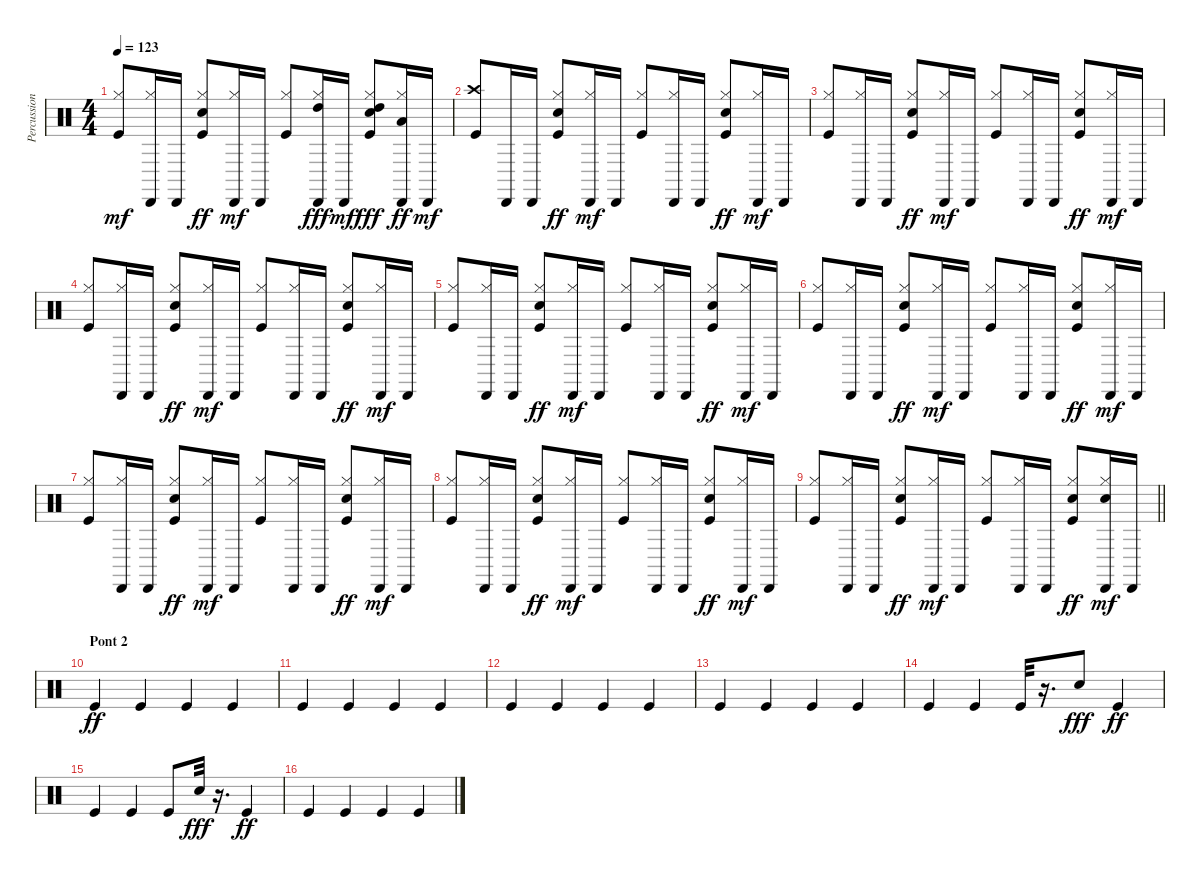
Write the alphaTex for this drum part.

\track ("Percussions" "Percussion") {instrument percussion}
\staff {score}
\articulation defaults
\ts (4 4)
\tempo 123
\clef neutral
\ks c
("Kick (hit)" "Hi-Hat (closed)").8{dy mf} ("Hi-Hat (closed)" "Cabasa (hit)").16 "Cabasa (hit)".16 ("Kick (hit)" "Snare (hit) 2" "Hi-Hat (closed)").8{dy ff} ("Hi-Hat (closed)" "Cabasa (hit)").16{dy mf} "Cabasa (hit)".16 ("Kick (hit)" "Hi-Hat (closed)").8 ("Hi-Hat (closed)" "Cabasa (hit)" "High Tom (hit)").16{dy fff} "Cabasa (hit)".16{dy mf} ("Kick (hit)" "Snare (hit) 2" "Hi-Hat (closed)" "High Tom (hit)").8{dy fff} ("Hi-Hat (closed)" "Cabasa (hit)" "Low Tom (hit)").16{dy ff} "Cabasa (hit)".16{dy mf} |
("Kick (hit)" "Crash high (hit)").8 "Cabasa (hit)".16 "Cabasa (hit)".16 ("Kick (hit)" "Snare (hit) 2" "Hi-Hat (closed)").8{dy ff} ("Hi-Hat (closed)" "Cabasa (hit)").16{dy mf} "Cabasa (hit)".16 ("Kick (hit)" "Hi-Hat (closed)").8 ("Hi-Hat (closed)" "Cabasa (hit)").16 "Cabasa (hit)".16 ("Kick (hit)" "Snare (hit) 2" "Hi-Hat (closed)").8{dy ff} ("Hi-Hat (closed)" "Cabasa (hit)").16{dy mf} "Cabasa (hit)".16 |
("Kick (hit)" "Hi-Hat (closed)").8 ("Hi-Hat (closed)" "Cabasa (hit)").16 "Cabasa (hit)".16 ("Kick (hit)" "Snare (hit) 2" "Hi-Hat (closed)").8{dy ff} ("Hi-Hat (closed)" "Cabasa (hit)").16{dy mf} "Cabasa (hit)".16 ("Kick (hit)" "Hi-Hat (closed)").8 ("Hi-Hat (closed)" "Cabasa (hit)").16 "Cabasa (hit)".16 ("Kick (hit)" "Snare (hit) 2" "Hi-Hat (closed)").8{dy ff} ("Hi-Hat (closed)" "Cabasa (hit)").16{dy mf} "Cabasa (hit)".16 |
("Kick (hit)" "Hi-Hat (closed)").8 ("Hi-Hat (closed)" "Cabasa (hit)").16 "Cabasa (hit)".16 ("Kick (hit)" "Snare (hit) 2" "Hi-Hat (closed)").8{dy ff} ("Hi-Hat (closed)" "Cabasa (hit)").16{dy mf} "Cabasa (hit)".16 ("Kick (hit)" "Hi-Hat (closed)").8 ("Hi-Hat (closed)" "Cabasa (hit)").16 "Cabasa (hit)".16 ("Kick (hit)" "Snare (hit) 2" "Hi-Hat (closed)").8{dy ff} ("Hi-Hat (closed)" "Cabasa (hit)").16{dy mf} "Cabasa (hit)".16 |
("Kick (hit)" "Hi-Hat (closed)").8 ("Hi-Hat (closed)" "Cabasa (hit)").16 "Cabasa (hit)".16 ("Kick (hit)" "Snare (hit) 2" "Hi-Hat (closed)").8{dy ff} ("Hi-Hat (closed)" "Cabasa (hit)").16{dy mf} "Cabasa (hit)".16 ("Kick (hit)" "Hi-Hat (closed)").8 ("Hi-Hat (closed)" "Cabasa (hit)").16 "Cabasa (hit)".16 ("Kick (hit)" "Snare (hit) 2" "Hi-Hat (closed)").8{dy ff} ("Hi-Hat (closed)" "Cabasa (hit)").16{dy mf} "Cabasa (hit)".16 |
("Kick (hit)" "Hi-Hat (closed)").8 ("Hi-Hat (closed)" "Cabasa (hit)").16 "Cabasa (hit)".16 ("Kick (hit)" "Snare (hit) 2" "Hi-Hat (closed)").8{dy ff} ("Hi-Hat (closed)" "Cabasa (hit)").16{dy mf} "Cabasa (hit)".16 ("Kick (hit)" "Hi-Hat (closed)").8 ("Hi-Hat (closed)" "Cabasa (hit)").16 "Cabasa (hit)".16 ("Kick (hit)" "Snare (hit) 2" "Hi-Hat (closed)").8{dy ff} ("Hi-Hat (closed)" "Cabasa (hit)").16{dy mf} "Cabasa (hit)".16 |
("Kick (hit)" "Hi-Hat (closed)").8 ("Hi-Hat (closed)" "Cabasa (hit)").16 "Cabasa (hit)".16 ("Kick (hit)" "Snare (hit) 2" "Hi-Hat (closed)").8{dy ff} ("Hi-Hat (closed)" "Cabasa (hit)").16{dy mf} "Cabasa (hit)".16 ("Kick (hit)" "Hi-Hat (closed)").8 ("Hi-Hat (closed)" "Cabasa (hit)").16 "Cabasa (hit)".16 ("Kick (hit)" "Snare (hit) 2" "Hi-Hat (closed)").8{dy ff} ("Hi-Hat (closed)" "Cabasa (hit)").16{dy mf} "Cabasa (hit)".16 |
("Kick (hit)" "Hi-Hat (closed)").8 ("Hi-Hat (closed)" "Cabasa (hit)").16 "Cabasa (hit)".16 ("Kick (hit)" "Snare (hit) 2" "Hi-Hat (closed)").8{dy ff} ("Hi-Hat (closed)" "Cabasa (hit)").16{dy mf} "Cabasa (hit)".16 ("Kick (hit)" "Hi-Hat (closed)").8 ("Hi-Hat (closed)" "Cabasa (hit)").16 "Cabasa (hit)".16 ("Kick (hit)" "Snare (hit) 2" "Hi-Hat (closed)").8{dy ff} ("Hi-Hat (closed)" "Cabasa (hit)").16{dy mf} "Cabasa (hit)".16 |
\barLineRight lightlight
("Kick (hit)" "Hi-Hat (closed)").8 ("Hi-Hat (closed)" "Cabasa (hit)").16 "Cabasa (hit)".16 ("Kick (hit)" "Snare (hit) 2" "Hi-Hat (closed)").8{dy ff} ("Hi-Hat (closed)" "Cabasa (hit)").16{dy mf} "Cabasa (hit)".16 ("Kick (hit)" "Hi-Hat (closed)").8 ("Hi-Hat (closed)" "Cabasa (hit)").16 "Cabasa (hit)".16 ("Kick (hit)" "Snare (hit) 2" "Hi-Hat (closed)").8{dy ff} ("Hi-Hat (closed)" "Hand Clap (hit)" "Cabasa (hit)").16{dy mf} "Cabasa (hit)".16 |
\section ("" "Pont 2")
"Kick (hit)".4{dy ff} "Kick (hit)".4 "Kick (hit)".4 "Kick (hit)".4 |
"Kick (hit)".4 "Kick (hit)".4 "Kick (hit)".4 "Kick (hit)".4 |
"Kick (hit)".4 "Kick (hit)".4 "Kick (hit)".4 "Kick (hit)".4 |
"Kick (hit)".4 "Kick (hit)".4 "Kick (hit)".4 "Kick (hit)".4 |
"Kick (hit)".4 "Kick (hit)".4 "Kick (hit)".32 r.16{d} "Hand Clap (hit)".8{dy fff} "Kick (hit)".4{dy ff} |
"Kick (hit)".4 "Kick (hit)".4 "Kick (hit)".8 "Hand Clap (hit)".32{dy fff} r.16{d} "Kick (hit)".4{dy ff} |
"Kick (hit)".4 "Kick (hit)".4 "Kick (hit)".4 "Kick (hit)".4
